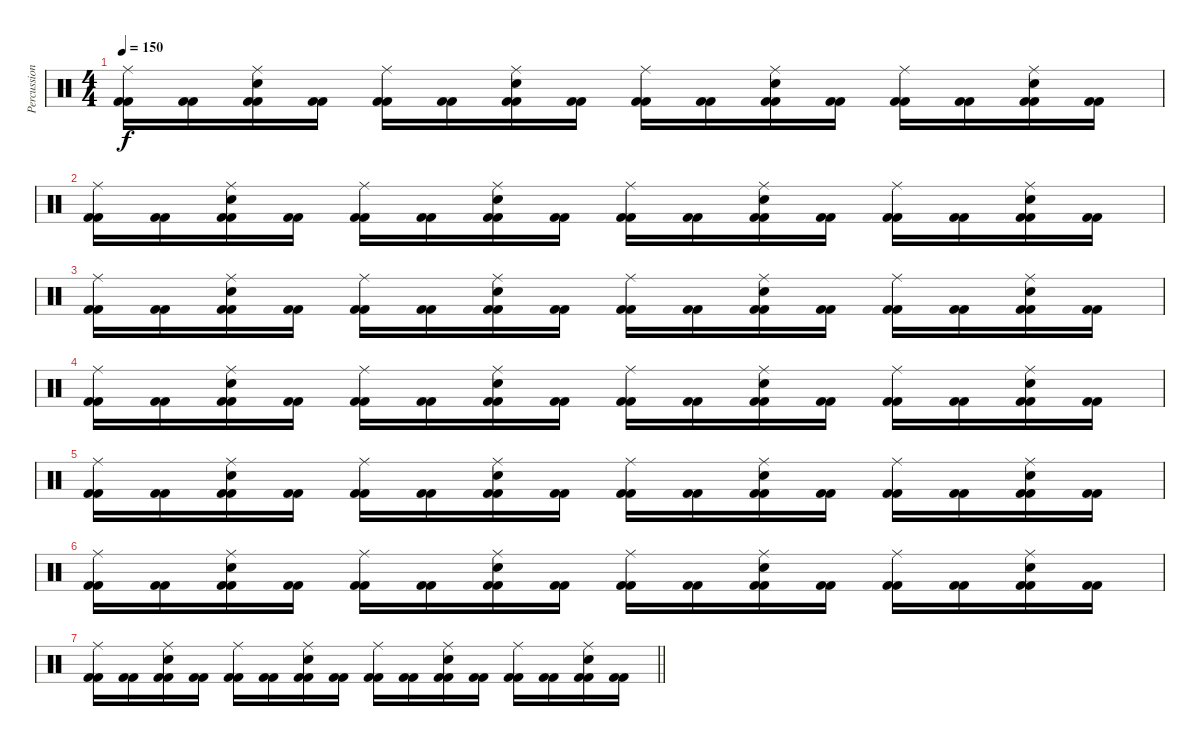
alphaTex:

\track ("Percussion" "Percussion") {instrument percussion}
\staff {score}
\articulation defaults
\ts (4 4)
\tempo 150
\clef neutral
\ks c
("Kick (hit) 2" "Kick (hit) 2" "Ride (middle)").16{dy f} ("Kick (hit) 2" "Kick (hit) 2").16 ("Kick (hit) 2" "Kick (hit) 2" "Electric Snare (hit)" "Ride (middle)").16 ("Kick (hit) 2" "Kick (hit) 2").16 ("Kick (hit) 2" "Kick (hit) 2" "Ride (middle)").16 ("Kick (hit) 2" "Kick (hit) 2").16 ("Kick (hit) 2" "Kick (hit) 2" "Electric Snare (hit)" "Ride (middle)").16 ("Kick (hit) 2" "Kick (hit) 2").16 ("Kick (hit) 2" "Kick (hit) 2" "Ride (middle)").16 ("Kick (hit) 2" "Kick (hit) 2").16 ("Kick (hit) 2" "Kick (hit) 2" "Electric Snare (hit)" "Ride (middle)").16 ("Kick (hit) 2" "Kick (hit) 2").16 ("Kick (hit) 2" "Kick (hit) 2" "Ride (middle)").16 ("Kick (hit) 2" "Kick (hit) 2").16 ("Kick (hit) 2" "Kick (hit) 2" "Electric Snare (hit)" "Ride (middle)").16 ("Kick (hit) 2" "Kick (hit) 2").16 |
("Kick (hit) 2" "Kick (hit) 2" "Ride (middle)").16 ("Kick (hit) 2" "Kick (hit) 2").16 ("Kick (hit) 2" "Kick (hit) 2" "Electric Snare (hit)" "Ride (middle)").16 ("Kick (hit) 2" "Kick (hit) 2").16 ("Kick (hit) 2" "Kick (hit) 2" "Ride (middle)").16 ("Kick (hit) 2" "Kick (hit) 2").16 ("Kick (hit) 2" "Kick (hit) 2" "Electric Snare (hit)" "Ride (middle)").16 ("Kick (hit) 2" "Kick (hit) 2").16 ("Kick (hit) 2" "Kick (hit) 2" "Ride (middle)").16 ("Kick (hit) 2" "Kick (hit) 2").16 ("Kick (hit) 2" "Kick (hit) 2" "Electric Snare (hit)" "Ride (middle)").16 ("Kick (hit) 2" "Kick (hit) 2").16 ("Kick (hit) 2" "Kick (hit) 2" "Ride (middle)").16 ("Kick (hit) 2" "Kick (hit) 2").16 ("Kick (hit) 2" "Kick (hit) 2" "Electric Snare (hit)" "Ride (middle)").16 ("Kick (hit) 2" "Kick (hit) 2").16 |
("Kick (hit) 2" "Kick (hit) 2" "Ride (middle)").16 ("Kick (hit) 2" "Kick (hit) 2").16 ("Kick (hit) 2" "Kick (hit) 2" "Electric Snare (hit)" "Ride (middle)").16 ("Kick (hit) 2" "Kick (hit) 2").16 ("Kick (hit) 2" "Kick (hit) 2" "Ride (middle)").16 ("Kick (hit) 2" "Kick (hit) 2").16 ("Kick (hit) 2" "Kick (hit) 2" "Electric Snare (hit)" "Ride (middle)").16 ("Kick (hit) 2" "Kick (hit) 2").16 ("Kick (hit) 2" "Kick (hit) 2" "Ride (middle)").16 ("Kick (hit) 2" "Kick (hit) 2").16 ("Kick (hit) 2" "Kick (hit) 2" "Electric Snare (hit)" "Ride (middle)").16 ("Kick (hit) 2" "Kick (hit) 2").16 ("Kick (hit) 2" "Kick (hit) 2" "Ride (middle)").16 ("Kick (hit) 2" "Kick (hit) 2").16 ("Kick (hit) 2" "Kick (hit) 2" "Electric Snare (hit)" "Ride (middle)").16 ("Kick (hit) 2" "Kick (hit) 2").16 |
("Kick (hit) 2" "Kick (hit) 2" "Ride (middle)").16 ("Kick (hit) 2" "Kick (hit) 2").16 ("Kick (hit) 2" "Kick (hit) 2" "Electric Snare (hit)" "Ride (middle)").16 ("Kick (hit) 2" "Kick (hit) 2").16 ("Kick (hit) 2" "Kick (hit) 2" "Ride (middle)").16 ("Kick (hit) 2" "Kick (hit) 2").16 ("Kick (hit) 2" "Kick (hit) 2" "Electric Snare (hit)" "Ride (middle)").16 ("Kick (hit) 2" "Kick (hit) 2").16 ("Kick (hit) 2" "Kick (hit) 2" "Ride (middle)").16 ("Kick (hit) 2" "Kick (hit) 2").16 ("Kick (hit) 2" "Kick (hit) 2" "Electric Snare (hit)" "Ride (middle)").16 ("Kick (hit) 2" "Kick (hit) 2").16 ("Kick (hit) 2" "Kick (hit) 2" "Ride (middle)").16 ("Kick (hit) 2" "Kick (hit) 2").16 ("Kick (hit) 2" "Kick (hit) 2" "Electric Snare (hit)" "Ride (middle)").16 ("Kick (hit) 2" "Kick (hit) 2").16 |
("Kick (hit) 2" "Kick (hit) 2" "Ride (middle)").16 ("Kick (hit) 2" "Kick (hit) 2").16 ("Kick (hit) 2" "Kick (hit) 2" "Electric Snare (hit)" "Ride (middle)").16 ("Kick (hit) 2" "Kick (hit) 2").16 ("Kick (hit) 2" "Kick (hit) 2" "Ride (middle)").16 ("Kick (hit) 2" "Kick (hit) 2").16 ("Kick (hit) 2" "Kick (hit) 2" "Electric Snare (hit)" "Ride (middle)").16 ("Kick (hit) 2" "Kick (hit) 2").16 ("Kick (hit) 2" "Kick (hit) 2" "Ride (middle)").16 ("Kick (hit) 2" "Kick (hit) 2").16 ("Kick (hit) 2" "Kick (hit) 2" "Electric Snare (hit)" "Ride (middle)").16 ("Kick (hit) 2" "Kick (hit) 2").16 ("Kick (hit) 2" "Kick (hit) 2" "Ride (middle)").16 ("Kick (hit) 2" "Kick (hit) 2").16 ("Kick (hit) 2" "Kick (hit) 2" "Electric Snare (hit)" "Ride (middle)").16 ("Kick (hit) 2" "Kick (hit) 2").16 |
("Kick (hit) 2" "Kick (hit) 2" "Ride (middle)").16 ("Kick (hit) 2" "Kick (hit) 2").16 ("Kick (hit) 2" "Kick (hit) 2" "Electric Snare (hit)" "Ride (middle)").16 ("Kick (hit) 2" "Kick (hit) 2").16 ("Kick (hit) 2" "Kick (hit) 2" "Ride (middle)").16 ("Kick (hit) 2" "Kick (hit) 2").16 ("Kick (hit) 2" "Kick (hit) 2" "Electric Snare (hit)" "Ride (middle)").16 ("Kick (hit) 2" "Kick (hit) 2").16 ("Kick (hit) 2" "Kick (hit) 2" "Ride (middle)").16 ("Kick (hit) 2" "Kick (hit) 2").16 ("Kick (hit) 2" "Kick (hit) 2" "Electric Snare (hit)" "Ride (middle)").16 ("Kick (hit) 2" "Kick (hit) 2").16 ("Kick (hit) 2" "Kick (hit) 2" "Ride (middle)").16 ("Kick (hit) 2" "Kick (hit) 2").16 ("Kick (hit) 2" "Kick (hit) 2" "Electric Snare (hit)" "Ride (middle)").16 ("Kick (hit) 2" "Kick (hit) 2").16 |
\barLineRight lightlight
("Kick (hit) 2" "Kick (hit) 2" "Ride (middle)").16 ("Kick (hit) 2" "Kick (hit) 2").16 ("Kick (hit) 2" "Kick (hit) 2" "Electric Snare (hit)" "Ride (middle)").16 ("Kick (hit) 2" "Kick (hit) 2").16 ("Kick (hit) 2" "Kick (hit) 2" "Ride (middle)").16 ("Kick (hit) 2" "Kick (hit) 2").16 ("Kick (hit) 2" "Kick (hit) 2" "Electric Snare (hit)" "Ride (middle)").16 ("Kick (hit) 2" "Kick (hit) 2").16 ("Kick (hit) 2" "Kick (hit) 2" "Ride (middle)").16 ("Kick (hit) 2" "Kick (hit) 2").16 ("Kick (hit) 2" "Kick (hit) 2" "Electric Snare (hit)" "Ride (middle)").16 ("Kick (hit) 2" "Kick (hit) 2").16 ("Kick (hit) 2" "Kick (hit) 2" "Ride (middle)").16 ("Kick (hit) 2" "Kick (hit) 2").16 ("Kick (hit) 2" "Kick (hit) 2" "Electric Snare (hit)" "Ride (middle)").16 ("Kick (hit) 2" "Kick (hit) 2").16
